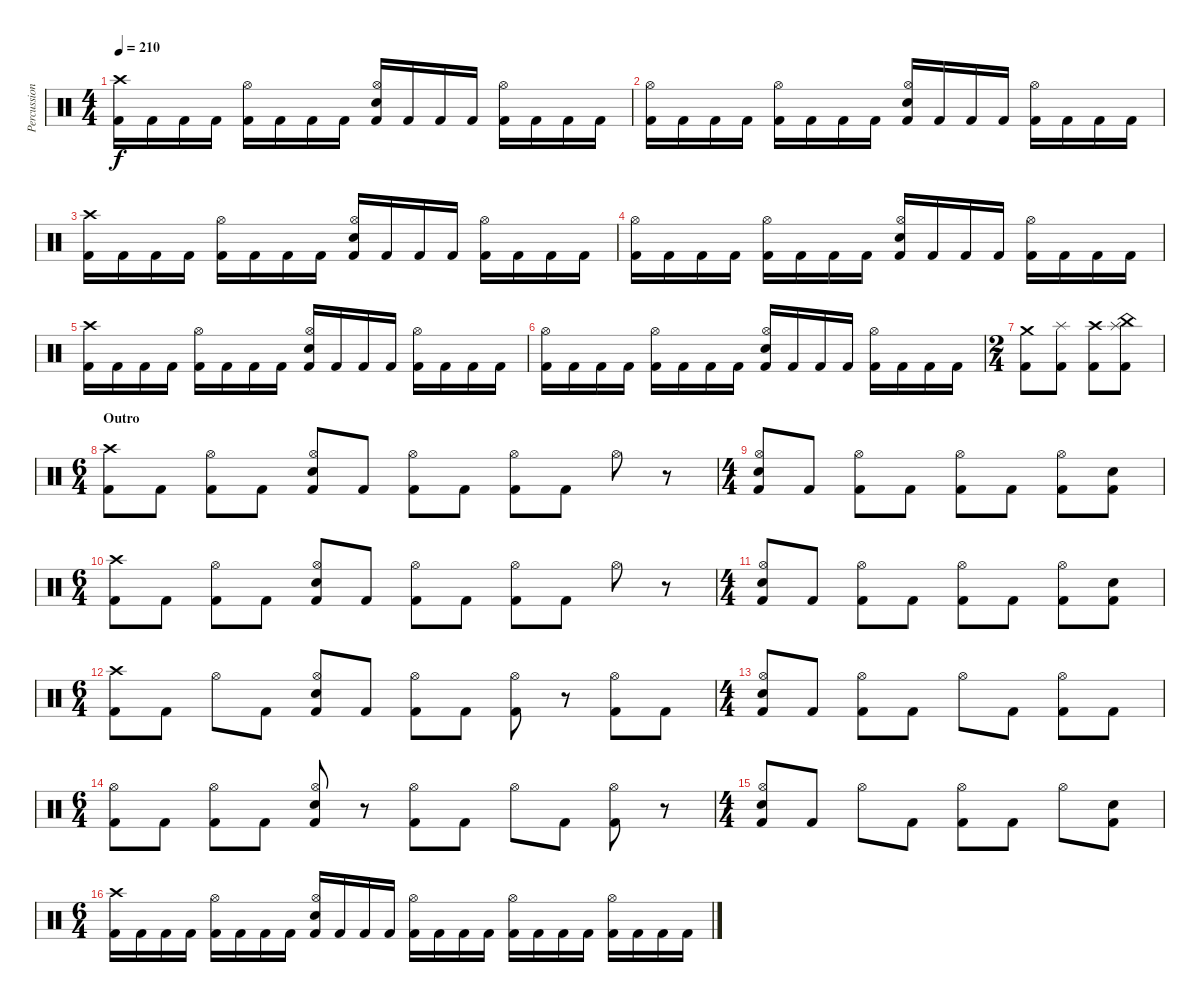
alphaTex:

\track ("Percussion" "Percussion") {instrument percussion}
\staff {score}
\articulation defaults
\ts (4 4)
\tempo 210
\clef neutral
\ks c
("Crash high (hit)" "Kick (hit) 2").16{dy f} "Kick (hit) 2".16 "Kick (hit) 2".16 "Kick (hit) 2".16 ("Hi-Hat (open)" "Kick (hit) 2").16 "Kick (hit) 2".16 "Kick (hit) 2".16 "Kick (hit) 2".16 ("Hi-Hat (open)" "Electric Snare (hit)" "Kick (hit) 2").16 "Kick (hit) 2".16 "Kick (hit) 2".16 "Kick (hit) 2".16 ("Hi-Hat (open)" "Kick (hit) 2").16 "Kick (hit) 2".16 "Kick (hit) 2".16 "Kick (hit) 2".16 |
("Hi-Hat (open)" "Kick (hit) 2").16 "Kick (hit) 2".16 "Kick (hit) 2".16 "Kick (hit) 2".16 ("Hi-Hat (open)" "Kick (hit) 2").16 "Kick (hit) 2".16 "Kick (hit) 2".16 "Kick (hit) 2".16 ("Hi-Hat (open)" "Electric Snare (hit)" "Kick (hit) 2").16 "Kick (hit) 2".16 "Kick (hit) 2".16 "Kick (hit) 2".16 ("Hi-Hat (open)" "Kick (hit) 2").16 "Kick (hit) 2".16 "Kick (hit) 2".16 "Kick (hit) 2".16 |
("Crash high (hit)" "Kick (hit) 2").16 "Kick (hit) 2".16 "Kick (hit) 2".16 "Kick (hit) 2".16 ("Hi-Hat (open)" "Kick (hit) 2").16 "Kick (hit) 2".16 "Kick (hit) 2".16 "Kick (hit) 2".16 ("Hi-Hat (open)" "Electric Snare (hit)" "Kick (hit) 2").16 "Kick (hit) 2".16 "Kick (hit) 2".16 "Kick (hit) 2".16 ("Hi-Hat (open)" "Kick (hit) 2").16 "Kick (hit) 2".16 "Kick (hit) 2".16 "Kick (hit) 2".16 |
("Hi-Hat (open)" "Kick (hit) 2").16 "Kick (hit) 2".16 "Kick (hit) 2".16 "Kick (hit) 2".16 ("Hi-Hat (open)" "Kick (hit) 2").16 "Kick (hit) 2".16 "Kick (hit) 2".16 "Kick (hit) 2".16 ("Hi-Hat (open)" "Electric Snare (hit)" "Kick (hit) 2").16 "Kick (hit) 2".16 "Kick (hit) 2".16 "Kick (hit) 2".16 ("Hi-Hat (open)" "Kick (hit) 2").16 "Kick (hit) 2".16 "Kick (hit) 2".16 "Kick (hit) 2".16 |
("Crash high (hit)" "Kick (hit) 2").16 "Kick (hit) 2".16 "Kick (hit) 2".16 "Kick (hit) 2".16 ("Hi-Hat (open)" "Kick (hit) 2").16 "Kick (hit) 2".16 "Kick (hit) 2".16 "Kick (hit) 2".16 ("Hi-Hat (open)" "Electric Snare (hit)" "Kick (hit) 2").16 "Kick (hit) 2".16 "Kick (hit) 2".16 "Kick (hit) 2".16 ("Hi-Hat (open)" "Kick (hit) 2").16 "Kick (hit) 2".16 "Kick (hit) 2".16 "Kick (hit) 2".16 |
("Hi-Hat (open)" "Kick (hit) 2").16 "Kick (hit) 2".16 "Kick (hit) 2".16 "Kick (hit) 2".16 ("Hi-Hat (open)" "Kick (hit) 2").16 "Kick (hit) 2".16 "Kick (hit) 2".16 "Kick (hit) 2".16 ("Hi-Hat (open)" "Electric Snare (hit)" "Kick (hit) 2").16 "Kick (hit) 2".16 "Kick (hit) 2".16 "Kick (hit) 2".16 ("Hi-Hat (open)" "Kick (hit) 2").16 "Kick (hit) 2".16 "Kick (hit) 2".16 "Kick (hit) 2".16 |
\ts (2 4)
("Crash medium (hit)" "Kick (hit) 2").8 ("Splash (hit)" "Kick (hit) 2").8 ("Crash high (hit)" "Kick (hit) 2").8 ("China (hit)" "Splash (hit)" "Kick (hit) 2").8 |
\ts (6 4)
\section ("" "Outro")
("Crash high (hit)" "Kick (hit) 2").8 "Kick (hit) 2".8 ("Hi-Hat (open)" "Kick (hit) 2").8 "Kick (hit) 2".8 ("Hi-Hat (open)" "Electric Snare (hit)" "Kick (hit) 2").8 "Kick (hit) 2".8 ("Hi-Hat (open)" "Kick (hit) 2").8 "Kick (hit) 2".8 ("Hi-Hat (open)" "Kick (hit) 2").8 "Kick (hit) 2".8 "Hi-Hat (open)".8 r.8 |
\ts (4 4)
("Hi-Hat (open)" "Electric Snare (hit)" "Kick (hit) 2").8 "Kick (hit) 2".8 ("Hi-Hat (open)" "Kick (hit) 2").8 "Kick (hit) 2".8 ("Hi-Hat (open)" "Kick (hit) 2").8 "Kick (hit) 2".8 ("Hi-Hat (open)" "Kick (hit) 2").8 ("Electric Snare (hit)" "Kick (hit) 2").8 |
\ts (6 4)
("Crash high (hit)" "Kick (hit) 2").8 "Kick (hit) 2".8 ("Hi-Hat (open)" "Kick (hit) 2").8 "Kick (hit) 2".8 ("Hi-Hat (open)" "Electric Snare (hit)" "Kick (hit) 2").8 "Kick (hit) 2".8 ("Hi-Hat (open)" "Kick (hit) 2").8 "Kick (hit) 2".8 ("Hi-Hat (open)" "Kick (hit) 2").8 "Kick (hit) 2".8 "Hi-Hat (open)".8 r.8 |
\ts (4 4)
("Hi-Hat (open)" "Electric Snare (hit)" "Kick (hit) 2").8 "Kick (hit) 2".8 ("Hi-Hat (open)" "Kick (hit) 2").8 "Kick (hit) 2".8 ("Hi-Hat (open)" "Kick (hit) 2").8 "Kick (hit) 2".8 ("Hi-Hat (open)" "Kick (hit) 2").8 ("Electric Snare (hit)" "Kick (hit) 2").8 |
\ts (6 4)
("Crash high (hit)" "Kick (hit) 2").8 "Kick (hit) 2".8 "Hi-Hat (open)".8 "Kick (hit) 2".8 ("Hi-Hat (open)" "Electric Snare (hit)" "Kick (hit) 2").8 "Kick (hit) 2".8 ("Hi-Hat (open)" "Kick (hit) 2").8 "Kick (hit) 2".8 ("Hi-Hat (open)" "Kick (hit) 2").8 r.8 ("Hi-Hat (open)" "Kick (hit) 2").8 "Kick (hit) 2".8 |
\ts (4 4)
("Hi-Hat (open)" "Electric Snare (hit)" "Kick (hit) 2").8 "Kick (hit) 2".8 ("Hi-Hat (open)" "Kick (hit) 2").8 "Kick (hit) 2".8 "Hi-Hat (open)".8 "Kick (hit) 2".8 ("Hi-Hat (open)" "Kick (hit) 2").8 "Kick (hit) 2".8 |
\ts (6 4)
("Hi-Hat (open)" "Kick (hit) 2").8 "Kick (hit) 2".8 ("Hi-Hat (open)" "Kick (hit) 2").8 "Kick (hit) 2".8 ("Hi-Hat (open)" "Electric Snare (hit)" "Kick (hit) 2").8 r.8 ("Hi-Hat (open)" "Kick (hit) 2").8 "Kick (hit) 2".8 "Hi-Hat (open)".8 "Kick (hit) 2".8 ("Hi-Hat (open)" "Kick (hit) 2").8 r.8 |
\ts (4 4)
("Hi-Hat (open)" "Electric Snare (hit)" "Kick (hit) 2").8 "Kick (hit) 2".8 "Hi-Hat (open)".8 "Kick (hit) 2".8 ("Hi-Hat (open)" "Kick (hit) 2").8 "Kick (hit) 2".8 "Hi-Hat (open)".8 ("Electric Snare (hit)" "Kick (hit) 2").8 |
\ts (6 4)
("Crash high (hit)" "Kick (hit) 2").16 "Kick (hit) 2".16 "Kick (hit) 2".16 "Kick (hit) 2".16 ("Hi-Hat (open)" "Kick (hit) 2").16 "Kick (hit) 2".16 "Kick (hit) 2".16 "Kick (hit) 2".16 ("Hi-Hat (open)" "Electric Snare (hit)" "Kick (hit) 2").16 "Kick (hit) 2".16 "Kick (hit) 2".16 "Kick (hit) 2".16 ("Hi-Hat (open)" "Kick (hit) 2").16 "Kick (hit) 2".16 "Kick (hit) 2".16 "Kick (hit) 2".16 ("Hi-Hat (open)" "Kick (hit) 2").16 "Kick (hit) 2".16 "Kick (hit) 2".16 "Kick (hit) 2".16 ("Hi-Hat (open)" "Kick (hit) 2").16 "Kick (hit) 2".16 "Kick (hit) 2".16 "Kick (hit) 2".16
